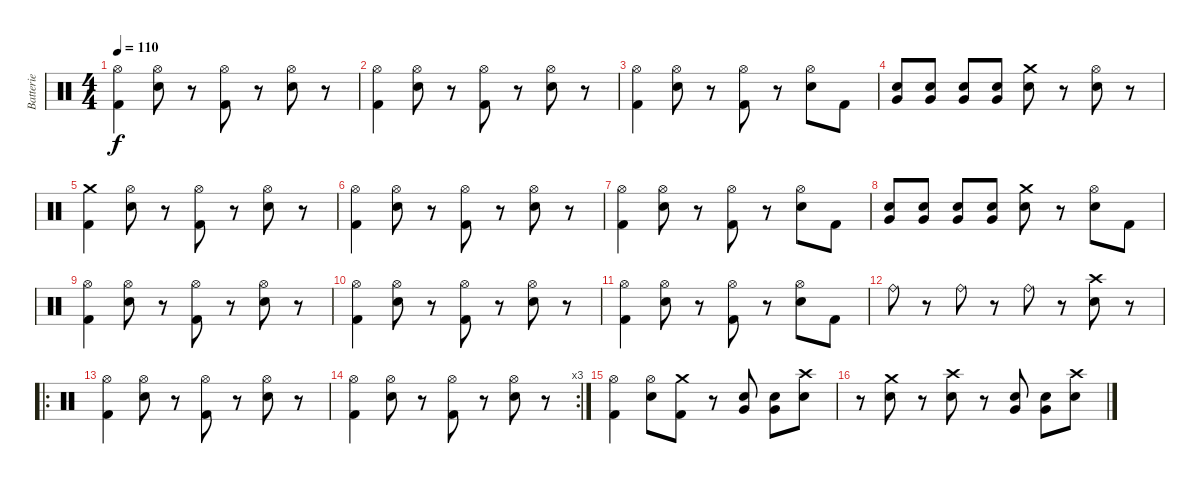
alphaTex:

\track ("Batterie" "Batterie") {instrument percussion}
\staff {score}
\articulation defaults
\ts (4 4)
\tempo 110
\clef neutral
\ks c
("Hi-Hat (open)" "Kick (hit) 2").4{dy f} ("Hi-Hat (open)" "Electric Snare (hit)").8 r.8 ("Hi-Hat (open)" "Kick (hit) 2").8 r.8 ("Hi-Hat (open)" "Electric Snare (hit)").8 r.8 |
("Hi-Hat (open)" "Kick (hit) 2").4 ("Hi-Hat (open)" "Electric Snare (hit)").8 r.8 ("Hi-Hat (open)" "Kick (hit) 2").8 r.8 ("Hi-Hat (open)" "Electric Snare (hit)").8 r.8 |
("Hi-Hat (open)" "Kick (hit) 2").4 ("Hi-Hat (open)" "Electric Snare (hit)").8 r.8 ("Hi-Hat (open)" "Kick (hit) 2").8 r.8 ("Hi-Hat (open)" "Electric Snare (hit)").8 "Kick (hit) 2".8 |
("Very Low Tom (hit)" "Electric Snare (hit)").8 ("Very Low Tom (hit)" "Electric Snare (hit)").8 ("Very Low Tom (hit)" "Electric Snare (hit)").8 ("Very Low Tom (hit)" "Electric Snare (hit)").8 ("Crash medium (hit)" "Electric Snare (hit)").8 r.8 ("Hi-Hat (open)" "Electric Snare (hit)").8 r.8 |
("Crash medium (hit)" "Kick (hit) 2").4 ("Hi-Hat (open)" "Electric Snare (hit)").8 r.8 ("Hi-Hat (open)" "Kick (hit) 2").8 r.8 ("Hi-Hat (open)" "Electric Snare (hit)").8 r.8 |
("Hi-Hat (open)" "Kick (hit) 2").4 ("Hi-Hat (open)" "Electric Snare (hit)").8 r.8 ("Hi-Hat (open)" "Kick (hit) 2").8 r.8 ("Hi-Hat (open)" "Electric Snare (hit)").8 r.8 |
("Hi-Hat (open)" "Kick (hit) 2").4 ("Hi-Hat (open)" "Electric Snare (hit)").8 r.8 ("Hi-Hat (open)" "Kick (hit) 2").8 r.8 ("Hi-Hat (open)" "Electric Snare (hit)").8 "Kick (hit) 2".8 |
("Very Low Tom (hit)" "Electric Snare (hit)").8 ("Very Low Tom (hit)" "Electric Snare (hit)").8 ("Very Low Tom (hit)" "Electric Snare (hit)").8 ("Very Low Tom (hit)" "Electric Snare (hit)").8 ("Crash medium (hit)" "Electric Snare (hit)").8 r.8 ("Hi-Hat (open)" "Electric Snare (hit)").8 "Kick (hit) 2".8 |
("Hi-Hat (open)" "Kick (hit) 2").4 ("Hi-Hat (open)" "Electric Snare (hit)").8 r.8 ("Hi-Hat (open)" "Kick (hit) 2").8 r.8 ("Hi-Hat (open)" "Electric Snare (hit)").8 r.8 |
("Hi-Hat (open)" "Kick (hit) 2").4 ("Hi-Hat (open)" "Electric Snare (hit)").8 r.8 ("Hi-Hat (open)" "Kick (hit) 2").8 r.8 ("Hi-Hat (open)" "Electric Snare (hit)").8 r.8 |
("Hi-Hat (open)" "Kick (hit) 2").4 ("Hi-Hat (open)" "Electric Snare (hit)").8 r.8 ("Hi-Hat (open)" "Kick (hit) 2").8 r.8 ("Hi-Hat (open)" "Electric Snare (hit)").8 "Kick (hit) 2".8 |
"Ride (bell)".8 r.8 "Ride (bell)".8 r.8 "Ride (bell)".8 r.8 ("Crash high (hit)" "Electric Snare (hit)").8 r.8 |
\ro
("Hi-Hat (open)" "Kick (hit) 2").4 ("Hi-Hat (open)" "Electric Snare (hit)").8 r.8 ("Hi-Hat (open)" "Kick (hit) 2").8 r.8 ("Hi-Hat (open)" "Electric Snare (hit)").8 r.8 |
\rc 3
("Hi-Hat (open)" "Kick (hit) 2").4 ("Hi-Hat (open)" "Electric Snare (hit)").8 r.8 ("Hi-Hat (open)" "Kick (hit) 2").8 r.8 ("Hi-Hat (open)" "Electric Snare (hit)").8 r.8 |
("Hi-Hat (open)" "Kick (hit) 2").4 ("Hi-Hat (open)" "Electric Snare (hit)").8 ("Crash medium (hit)" "Kick (hit) 2").8 r.8 ("Electric Snare (hit)" "Very Low Tom (hit)").8 ("Electric Snare (hit)" "Very Low Tom (hit)").8 ("Crash high (hit)" "Electric Snare (hit)").8 |
r.8 ("Crash medium (hit)" "Electric Snare (hit)").8 r.8 ("Crash high (hit)" "Electric Snare (hit)").8 r.8 ("Very Low Tom (hit)" "Electric Snare (hit)").8 ("Very Low Tom (hit)" "Electric Snare (hit)").8 ("Crash high (hit)" "Electric Snare (hit)").8
